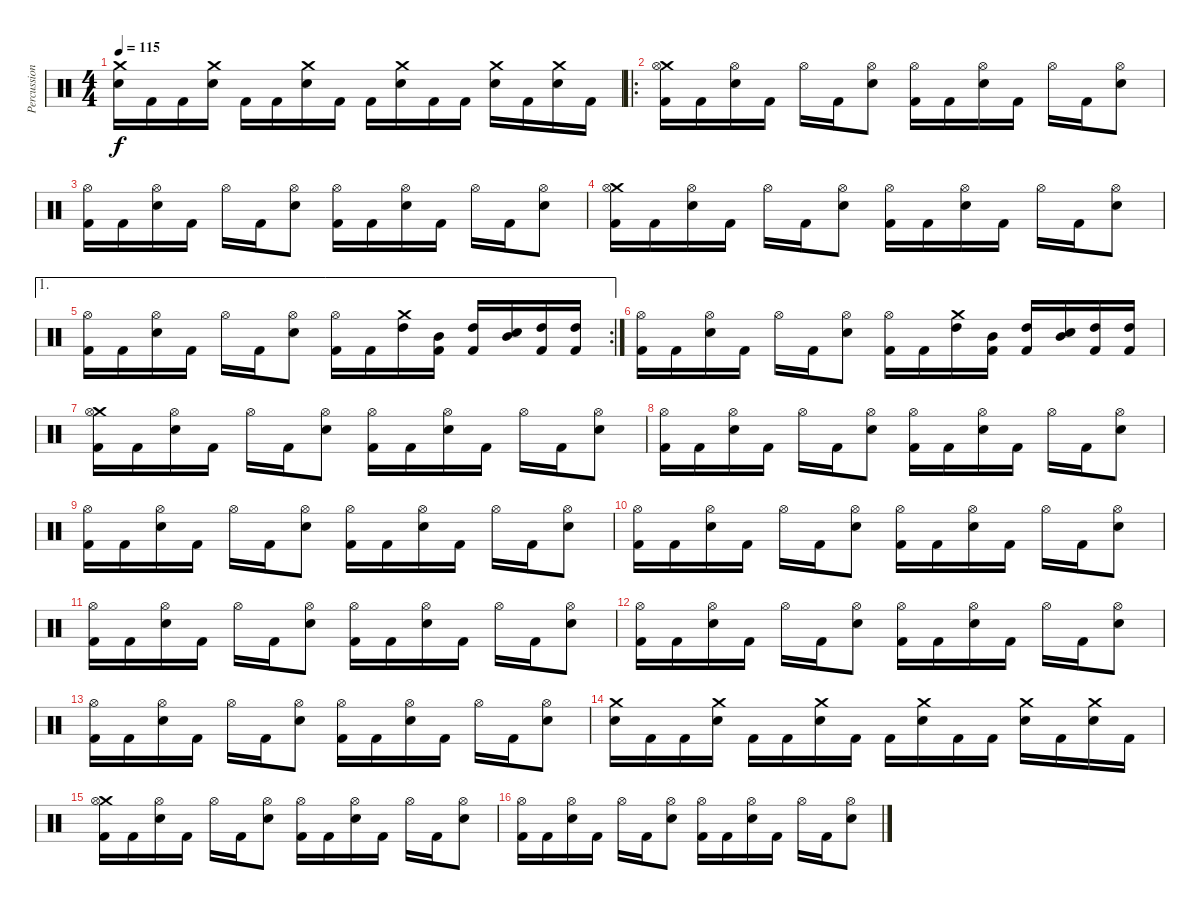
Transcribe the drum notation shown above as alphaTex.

\track ("Percussion" "Percussion") {instrument percussion}
\staff {score}
\articulation defaults
\ts (4 4)
\tempo 115
\clef neutral
\ks c
("Crash medium (hit)" "Snare (hit) 2").16{dy f} "Kick (hit) 2".16 "Kick (hit) 2".16 ("Crash medium (hit)" "Snare (hit) 2").16 "Kick (hit) 2".16 "Kick (hit) 2".16 ("Crash medium (hit)" "Snare (hit) 2").16 "Kick (hit) 2".16 "Kick (hit) 2".16 ("Crash medium (hit)" "Snare (hit) 2").16 "Kick (hit) 2".16 "Kick (hit) 2".16 ("Crash medium (hit)" "Snare (hit) 2").16 "Kick (hit) 2".16 ("Crash medium (hit)" "Snare (hit) 2").16 "Kick (hit) 2".16 |
\ro
("Crash medium (hit)" "Hi-Hat (open)" "Kick (hit) 2").16 "Kick (hit) 2".16 ("Hi-Hat (open)" "Snare (hit) 2").16 "Kick (hit) 2".16 "Hi-Hat (open)".16 "Kick (hit) 2".16 ("Hi-Hat (open)" "Snare (hit) 2").8 ("Hi-Hat (open)" "Kick (hit) 2").16 "Kick (hit) 2".16 ("Hi-Hat (open)" "Snare (hit) 2").16 "Kick (hit) 2".16 "Hi-Hat (open)".16 "Kick (hit) 2".16 ("Hi-Hat (open)" "Snare (hit) 2").8 |
("Hi-Hat (open)" "Kick (hit) 2").16 "Kick (hit) 2".16 ("Hi-Hat (open)" "Snare (hit) 2").16 "Kick (hit) 2".16 "Hi-Hat (open)".16 "Kick (hit) 2".16 ("Hi-Hat (open)" "Snare (hit) 2").8 ("Hi-Hat (open)" "Kick (hit) 2").16 "Kick (hit) 2".16 ("Hi-Hat (open)" "Snare (hit) 2").16 "Kick (hit) 2".16 "Hi-Hat (open)".16 "Kick (hit) 2".16 ("Hi-Hat (open)" "Snare (hit) 2").8 |
("Crash medium (hit)" "Hi-Hat (open)" "Kick (hit) 2").16 "Kick (hit) 2".16 ("Hi-Hat (open)" "Snare (hit) 2").16 "Kick (hit) 2".16 "Hi-Hat (open)".16 "Kick (hit) 2".16 ("Hi-Hat (open)" "Snare (hit) 2").8 ("Hi-Hat (open)" "Kick (hit) 2").16 "Kick (hit) 2".16 ("Hi-Hat (open)" "Snare (hit) 2").16 "Kick (hit) 2".16 "Hi-Hat (open)".16 "Kick (hit) 2".16 ("Hi-Hat (open)" "Snare (hit) 2").8 |
\ae 1
\rc 2
("Hi-Hat (open)" "Kick (hit) 2").16 "Kick (hit) 2".16 ("Hi-Hat (open)" "Snare (hit) 2").16 "Kick (hit) 2".16 "Hi-Hat (open)".16 "Kick (hit) 2".16 ("Hi-Hat (open)" "Snare (hit) 2").8 ("Hi-Hat (open)" "Kick (hit) 2").16 "Kick (hit) 2".16 ("Crash medium (hit)" "High Tom (hit)").16 ("Mid Tom (hit)" "Kick (hit) 2").16 ("High Tom (hit)" "Kick (hit) 2").16 ("Mid Tom (hit)" "Snare (hit) 2").16 ("High Tom (hit)" "Kick (hit) 2").16 ("High Tom (hit)" "Kick (hit) 2").16 |
("Hi-Hat (open)" "Kick (hit) 2").16 "Kick (hit) 2".16 ("Hi-Hat (open)" "Snare (hit) 2").16 "Kick (hit) 2".16 "Hi-Hat (open)".16 "Kick (hit) 2".16 ("Hi-Hat (open)" "Snare (hit) 2").8 ("Hi-Hat (open)" "Kick (hit) 2").16 "Kick (hit) 2".16 ("Crash medium (hit)" "High Tom (hit)").16 ("Mid Tom (hit)" "Kick (hit) 2").16 ("High Tom (hit)" "Kick (hit) 2").16 ("Mid Tom (hit)" "Snare (hit) 2").16 ("High Tom (hit)" "Kick (hit) 2").16 ("High Tom (hit)" "Kick (hit) 2").16 |
("Crash medium (hit)" "Hi-Hat (open)" "Kick (hit) 2").16 "Kick (hit) 2".16 ("Hi-Hat (open)" "Snare (hit) 2").16 "Kick (hit) 2".16 "Hi-Hat (open)".16 "Kick (hit) 2".16 ("Hi-Hat (open)" "Snare (hit) 2").8 ("Hi-Hat (open)" "Kick (hit) 2").16 "Kick (hit) 2".16 ("Hi-Hat (open)" "Snare (hit) 2").16 "Kick (hit) 2".16 "Hi-Hat (open)".16 "Kick (hit) 2".16 ("Hi-Hat (open)" "Snare (hit) 2").8 |
("Hi-Hat (open)" "Kick (hit) 2").16 "Kick (hit) 2".16 ("Hi-Hat (open)" "Snare (hit) 2").16 "Kick (hit) 2".16 "Hi-Hat (open)".16 "Kick (hit) 2".16 ("Hi-Hat (open)" "Snare (hit) 2").8 ("Hi-Hat (open)" "Kick (hit) 2").16 "Kick (hit) 2".16 ("Hi-Hat (open)" "Snare (hit) 2").16 "Kick (hit) 2".16 "Hi-Hat (open)".16 "Kick (hit) 2".16 ("Hi-Hat (open)" "Snare (hit) 2").8 |
("Hi-Hat (open)" "Kick (hit) 2").16 "Kick (hit) 2".16 ("Hi-Hat (open)" "Snare (hit) 2").16 "Kick (hit) 2".16 "Hi-Hat (open)".16 "Kick (hit) 2".16 ("Hi-Hat (open)" "Snare (hit) 2").8 ("Hi-Hat (open)" "Kick (hit) 2").16 "Kick (hit) 2".16 ("Hi-Hat (open)" "Snare (hit) 2").16 "Kick (hit) 2".16 "Hi-Hat (open)".16 "Kick (hit) 2".16 ("Hi-Hat (open)" "Snare (hit) 2").8 |
("Hi-Hat (open)" "Kick (hit) 2").16 "Kick (hit) 2".16 ("Hi-Hat (open)" "Snare (hit) 2").16 "Kick (hit) 2".16 "Hi-Hat (open)".16 "Kick (hit) 2".16 ("Hi-Hat (open)" "Snare (hit) 2").8 ("Hi-Hat (open)" "Kick (hit) 2").16 "Kick (hit) 2".16 ("Hi-Hat (open)" "Snare (hit) 2").16 "Kick (hit) 2".16 "Hi-Hat (open)".16 "Kick (hit) 2".16 ("Hi-Hat (open)" "Snare (hit) 2").8 |
("Hi-Hat (open)" "Kick (hit) 2").16 "Kick (hit) 2".16 ("Hi-Hat (open)" "Snare (hit) 2").16 "Kick (hit) 2".16 "Hi-Hat (open)".16 "Kick (hit) 2".16 ("Hi-Hat (open)" "Snare (hit) 2").8 ("Hi-Hat (open)" "Kick (hit) 2").16 "Kick (hit) 2".16 ("Hi-Hat (open)" "Snare (hit) 2").16 "Kick (hit) 2".16 "Hi-Hat (open)".16 "Kick (hit) 2".16 ("Hi-Hat (open)" "Snare (hit) 2").8 |
("Hi-Hat (open)" "Kick (hit) 2").16 "Kick (hit) 2".16 ("Hi-Hat (open)" "Snare (hit) 2").16 "Kick (hit) 2".16 "Hi-Hat (open)".16 "Kick (hit) 2".16 ("Hi-Hat (open)" "Snare (hit) 2").8 ("Hi-Hat (open)" "Kick (hit) 2").16 "Kick (hit) 2".16 ("Hi-Hat (open)" "Snare (hit) 2").16 "Kick (hit) 2".16 "Hi-Hat (open)".16 "Kick (hit) 2".16 ("Hi-Hat (open)" "Snare (hit) 2").8 |
("Hi-Hat (open)" "Kick (hit) 2").16 "Kick (hit) 2".16 ("Hi-Hat (open)" "Snare (hit) 2").16 "Kick (hit) 2".16 "Hi-Hat (open)".16 "Kick (hit) 2".16 ("Hi-Hat (open)" "Snare (hit) 2").8 ("Hi-Hat (open)" "Kick (hit) 2").16 "Kick (hit) 2".16 ("Hi-Hat (open)" "Snare (hit) 2").16 "Kick (hit) 2".16 "Hi-Hat (open)".16 "Kick (hit) 2".16 ("Hi-Hat (open)" "Snare (hit) 2").8 |
("Crash medium (hit)" "Snare (hit) 2").16 "Kick (hit) 2".16 "Kick (hit) 2".16 ("Crash medium (hit)" "Snare (hit) 2").16 "Kick (hit) 2".16 "Kick (hit) 2".16 ("Crash medium (hit)" "Snare (hit) 2").16 "Kick (hit) 2".16 "Kick (hit) 2".16 ("Crash medium (hit)" "Snare (hit) 2").16 "Kick (hit) 2".16 "Kick (hit) 2".16 ("Crash medium (hit)" "Snare (hit) 2").16 "Kick (hit) 2".16 ("Crash medium (hit)" "Snare (hit) 2").16 "Kick (hit) 2".16 |
("Crash medium (hit)" "Hi-Hat (open)" "Kick (hit) 2").16 "Kick (hit) 2".16 ("Hi-Hat (open)" "Snare (hit) 2").16 "Kick (hit) 2".16 "Hi-Hat (open)".16 "Kick (hit) 2".16 ("Hi-Hat (open)" "Snare (hit) 2").8 ("Hi-Hat (open)" "Kick (hit) 2").16 "Kick (hit) 2".16 ("Hi-Hat (open)" "Snare (hit) 2").16 "Kick (hit) 2".16 "Hi-Hat (open)".16 "Kick (hit) 2".16 ("Hi-Hat (open)" "Snare (hit) 2").8 |
("Hi-Hat (open)" "Kick (hit) 2").16 "Kick (hit) 2".16 ("Hi-Hat (open)" "Snare (hit) 2").16 "Kick (hit) 2".16 "Hi-Hat (open)".16 "Kick (hit) 2".16 ("Hi-Hat (open)" "Snare (hit) 2").8 ("Hi-Hat (open)" "Kick (hit) 2").16 "Kick (hit) 2".16 ("Hi-Hat (open)" "Snare (hit) 2").16 "Kick (hit) 2".16 "Hi-Hat (open)".16 "Kick (hit) 2".16 ("Hi-Hat (open)" "Snare (hit) 2").8
